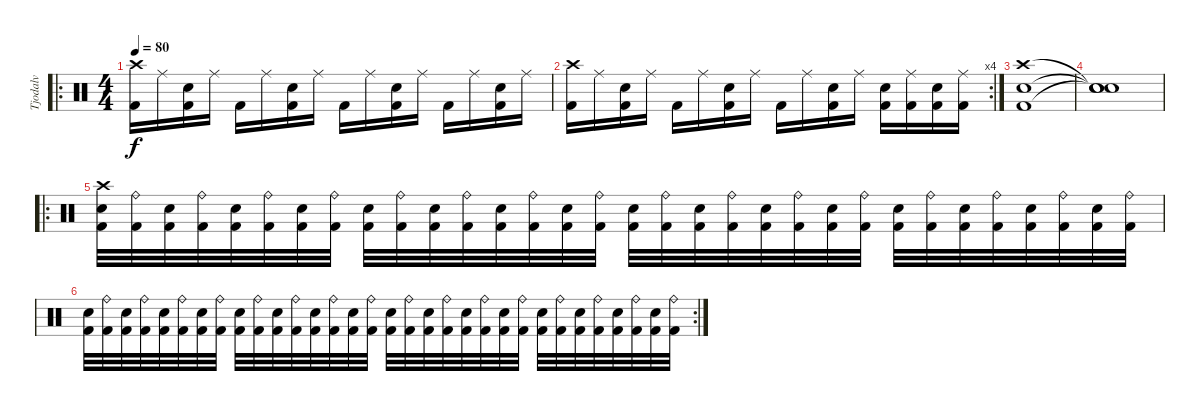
\track ("Tjodalv" "Tjodalv") {instrument percussion}
\staff {score}
\articulation defaults
\ro
\ts (4 4)
\tempo 80
\clef neutral
\ks c
("Crash high (hit)" "Kick (hit) 2").16{dy f} "Ride (middle)".16 ("Electric Snare (hit)" "Kick (hit) 2").16 "Ride (middle)".16 "Kick (hit) 2".16 "Ride (middle)".16 ("Electric Snare (hit)" "Kick (hit) 2").16 "Ride (middle)".16 "Kick (hit) 2".16 "Ride (middle)".16 ("Electric Snare (hit)" "Kick (hit) 2").16 "Ride (middle)".16 "Kick (hit) 2".16 "Ride (middle)".16 ("Electric Snare (hit)" "Kick (hit) 2").16 "Ride (middle)".16 |
\rc 4
("Crash high (hit)" "Kick (hit) 2").16 "Ride (middle)".16 ("Electric Snare (hit)" "Kick (hit) 2").16 "Ride (middle)".16 "Kick (hit) 2".16 "Ride (middle)".16 ("Electric Snare (hit)" "Kick (hit) 2").16 "Ride (middle)".16 "Kick (hit) 2".16 "Ride (middle)".16 ("Electric Snare (hit)" "Kick (hit) 2").16 "Ride (middle)".16 ("Electric Snare (hit)" "Kick (hit) 2").16 ("Ride (middle)" "Kick (hit) 2").16 ("Electric Snare (hit)" "Kick (hit) 2").16 ("Ride (middle)" "Kick (hit) 2").16 |
("Crash high (hit)" "Electric Snare (hit)" "Kick (hit) 2").1 |
("Snare (hit)"{t} "Snare (hit)"{t} "Snare (hit)"{t}).1 |
\ro
("Crash high (hit)" "Electric Snare (hit)" "Kick (hit) 2").32 ("Ride (bell)" "Kick (hit) 2").32 ("Electric Snare (hit)" "Kick (hit) 2").32 ("Ride (bell)" "Kick (hit) 2").32 ("Electric Snare (hit)" "Kick (hit) 2").32 ("Ride (bell)" "Kick (hit) 2").32 ("Electric Snare (hit)" "Kick (hit) 2").32 ("Ride (bell)" "Kick (hit) 2").32 ("Electric Snare (hit)" "Kick (hit) 2").32 ("Ride (bell)" "Kick (hit) 2").32 ("Electric Snare (hit)" "Kick (hit) 2").32 ("Ride (bell)" "Kick (hit) 2").32 ("Electric Snare (hit)" "Kick (hit) 2").32 ("Ride (bell)" "Kick (hit) 2").32 ("Electric Snare (hit)" "Kick (hit) 2").32 ("Ride (bell)" "Kick (hit) 2").32 ("Electric Snare (hit)" "Kick (hit) 2").32 ("Ride (bell)" "Kick (hit) 2").32 ("Electric Snare (hit)" "Kick (hit) 2").32 ("Ride (bell)" "Kick (hit) 2").32 ("Electric Snare (hit)" "Kick (hit) 2").32 ("Ride (bell)" "Kick (hit) 2").32 ("Electric Snare (hit)" "Kick (hit) 2").32 ("Ride (bell)" "Kick (hit) 2").32 ("Electric Snare (hit)" "Kick (hit) 2").32 ("Ride (bell)" "Kick (hit) 2").32 ("Electric Snare (hit)" "Kick (hit) 2").32 ("Ride (bell)" "Kick (hit) 2").32 ("Electric Snare (hit)" "Kick (hit) 2").32 ("Ride (bell)" "Kick (hit) 2").32 ("Electric Snare (hit)" "Kick (hit) 2").32 ("Ride (bell)" "Kick (hit) 2").32 |
\rc 2
("Electric Snare (hit)" "Kick (hit) 2").32 ("Ride (bell)" "Kick (hit) 2").32 ("Electric Snare (hit)" "Kick (hit) 2").32 ("Ride (bell)" "Kick (hit) 2").32 ("Electric Snare (hit)" "Kick (hit) 2").32 ("Ride (bell)" "Kick (hit) 2").32 ("Electric Snare (hit)" "Kick (hit) 2").32 ("Ride (bell)" "Kick (hit) 2").32 ("Electric Snare (hit)" "Kick (hit) 2").32 ("Ride (bell)" "Kick (hit) 2").32 ("Electric Snare (hit)" "Kick (hit) 2").32 ("Ride (bell)" "Kick (hit) 2").32 ("Electric Snare (hit)" "Kick (hit) 2").32 ("Ride (bell)" "Kick (hit) 2").32 ("Electric Snare (hit)" "Kick (hit) 2").32 ("Ride (bell)" "Kick (hit) 2").32 ("Electric Snare (hit)" "Kick (hit) 2").32 ("Ride (bell)" "Kick (hit) 2").32 ("Electric Snare (hit)" "Kick (hit) 2").32 ("Ride (bell)" "Kick (hit) 2").32 ("Electric Snare (hit)" "Kick (hit) 2").32 ("Ride (bell)" "Kick (hit) 2").32 ("Electric Snare (hit)" "Kick (hit) 2").32 ("Ride (bell)" "Kick (hit) 2").32 ("Electric Snare (hit)" "Kick (hit) 2").32 ("Ride (bell)" "Kick (hit) 2").32 ("Electric Snare (hit)" "Kick (hit) 2").32 ("Ride (bell)" "Kick (hit) 2").32 ("Electric Snare (hit)" "Kick (hit) 2").32 ("Ride (bell)" "Kick (hit) 2").32 ("Electric Snare (hit)" "Kick (hit) 2").32 ("Ride (bell)" "Kick (hit) 2").32
